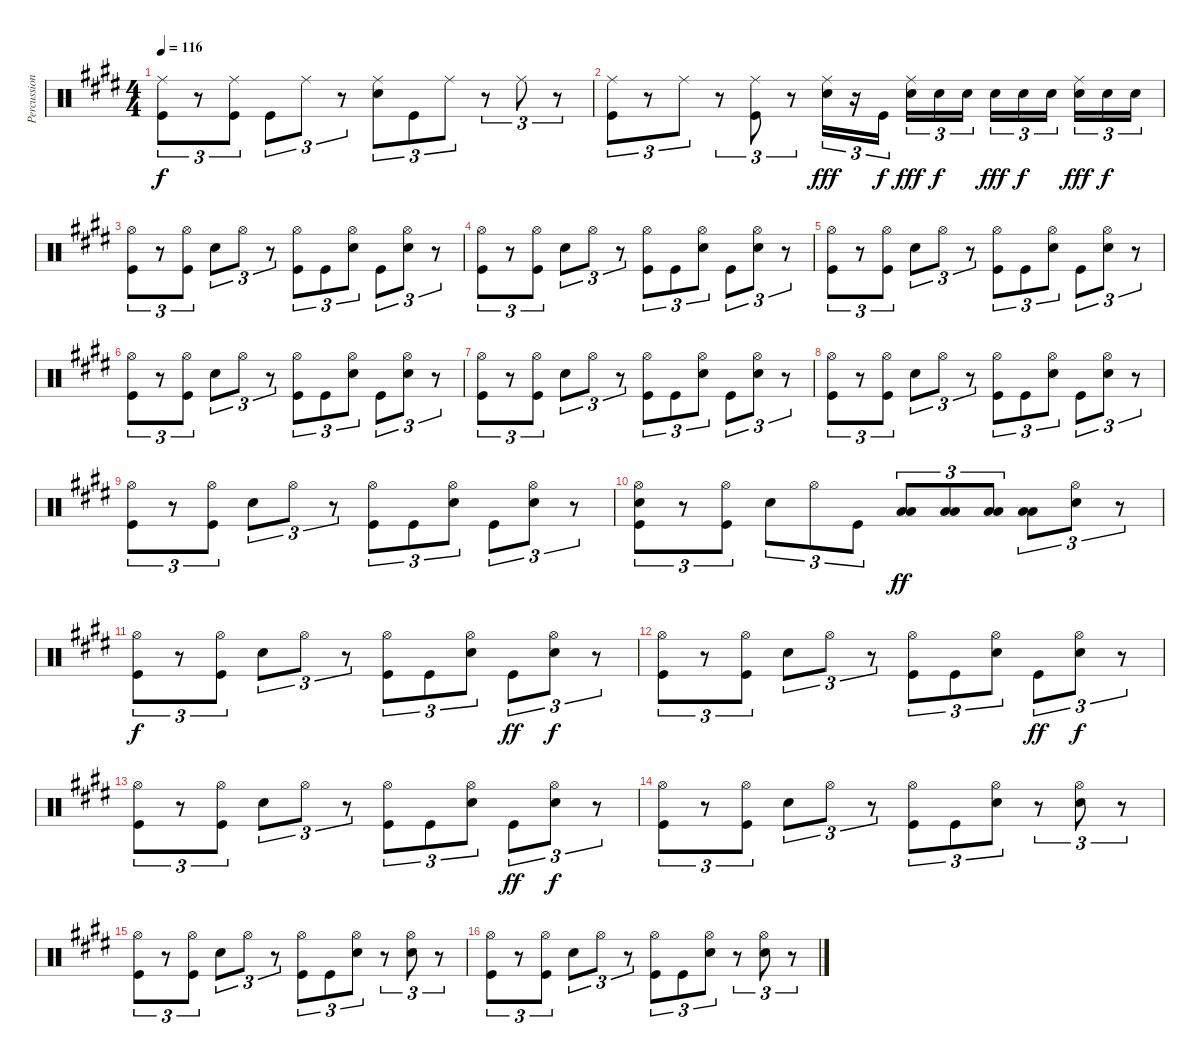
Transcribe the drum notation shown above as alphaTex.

\track ("Percussion" "Percussion") {instrument percussion}
\staff {score}
\articulation defaults
\ts (4 4)
\tempo 116
\clef neutral
\ks c#minor
("Ride (middle)" "Kick (hit)").8{tu (3 2) dy f} r.8{tu (3 2)} ("Ride (middle)" "Kick (hit)").8{tu (3 2)} "Kick (hit)".8{tu (3 2)} "Ride (middle)".8{tu (3 2)} r.8{tu (3 2)} ("Snare (hit) 2" "Ride (middle)").8{tu (3 2)} "Kick (hit)".8{tu (3 2)} "Ride (middle)".8{tu (3 2)} r.8{tu (3 2)} "Ride (middle)".8{tu (3 2)} r.8{tu (3 2)} |
("Ride (middle)" "Kick (hit)").8{tu (3 2)} r.8{tu (3 2)} "Ride (middle)".8{tu (3 2)} r.8{tu (3 2)} ("Ride (middle)" "Kick (hit)").8{tu (3 2)} r.8{tu (3 2)} ("Snare (hit) 2" "Ride (middle)").16{tu (3 2) dy fff} r.16{tu (3 2)} "Kick (hit)".16{tu (3 2) dy f beam splitsecondary} ("Snare (hit) 2" "Ride (middle)").16{tu (3 2) dy fff} "Snare (hit) 2".16{tu (3 2) dy f} "Snare (hit) 2".16{tu (3 2)} "Snare (hit) 2".16{tu (3 2) dy fff} "Snare (hit) 2".16{tu (3 2) dy f} "Snare (hit) 2".16{tu (3 2) beam splitsecondary} ("Snare (hit) 2" "Ride (middle)").16{tu (3 2) dy fff} "Snare (hit) 2".16{tu (3 2) dy f} "Snare (hit) 2".16{tu (3 2)} |
("Hi-Hat (open)" "Kick (hit)").8{tu (3 2)} r.8{tu (3 2)} ("Hi-Hat (open)" "Kick (hit)").8{tu (3 2)} "Snare (hit) 2".8{tu (3 2)} "Hi-Hat (open)".8{tu (3 2)} r.8{tu (3 2)} ("Hi-Hat (open)" "Kick (hit)").8{tu (3 2)} "Kick (hit)".8{tu (3 2)} ("Hi-Hat (open)" "Snare (hit) 2").8{tu (3 2)} "Kick (hit)".8{tu (3 2)} ("Hi-Hat (open)" "Snare (hit) 2").8{tu (3 2)} r.8{tu (3 2)} |
("Hi-Hat (open)" "Kick (hit)").8{tu (3 2)} r.8{tu (3 2)} ("Hi-Hat (open)" "Kick (hit)").8{tu (3 2)} "Snare (hit) 2".8{tu (3 2)} "Hi-Hat (open)".8{tu (3 2)} r.8{tu (3 2)} ("Hi-Hat (open)" "Kick (hit)").8{tu (3 2)} "Kick (hit)".8{tu (3 2)} ("Hi-Hat (open)" "Snare (hit) 2").8{tu (3 2)} "Kick (hit)".8{tu (3 2)} ("Hi-Hat (open)" "Snare (hit) 2").8{tu (3 2)} r.8{tu (3 2)} |
("Hi-Hat (open)" "Kick (hit)").8{tu (3 2)} r.8{tu (3 2)} ("Hi-Hat (open)" "Kick (hit)").8{tu (3 2)} "Snare (hit) 2".8{tu (3 2)} "Hi-Hat (open)".8{tu (3 2)} r.8{tu (3 2)} ("Hi-Hat (open)" "Kick (hit)").8{tu (3 2)} "Kick (hit)".8{tu (3 2)} ("Hi-Hat (open)" "Snare (hit) 2").8{tu (3 2)} "Kick (hit)".8{tu (3 2)} ("Hi-Hat (open)" "Snare (hit) 2").8{tu (3 2)} r.8{tu (3 2)} |
("Hi-Hat (open)" "Kick (hit)").8{tu (3 2)} r.8{tu (3 2)} ("Hi-Hat (open)" "Kick (hit)").8{tu (3 2)} "Snare (hit) 2".8{tu (3 2)} "Hi-Hat (open)".8{tu (3 2)} r.8{tu (3 2)} ("Hi-Hat (open)" "Kick (hit)").8{tu (3 2)} "Kick (hit)".8{tu (3 2)} ("Hi-Hat (open)" "Snare (hit) 2").8{tu (3 2)} "Kick (hit)".8{tu (3 2)} ("Hi-Hat (open)" "Snare (hit) 2").8{tu (3 2)} r.8{tu (3 2)} |
("Hi-Hat (open)" "Kick (hit)").8{tu (3 2)} r.8{tu (3 2)} ("Hi-Hat (open)" "Kick (hit)").8{tu (3 2)} "Snare (hit) 2".8{tu (3 2)} "Hi-Hat (open)".8{tu (3 2)} r.8{tu (3 2)} ("Hi-Hat (open)" "Kick (hit)").8{tu (3 2)} "Kick (hit)".8{tu (3 2)} ("Hi-Hat (open)" "Snare (hit) 2").8{tu (3 2)} "Kick (hit)".8{tu (3 2)} ("Hi-Hat (open)" "Snare (hit) 2").8{tu (3 2)} r.8{tu (3 2)} |
("Hi-Hat (open)" "Kick (hit)").8{tu (3 2)} r.8{tu (3 2)} ("Hi-Hat (open)" "Kick (hit)").8{tu (3 2)} "Snare (hit) 2".8{tu (3 2)} "Hi-Hat (open)".8{tu (3 2)} r.8{tu (3 2)} ("Hi-Hat (open)" "Kick (hit)").8{tu (3 2)} "Kick (hit)".8{tu (3 2)} ("Hi-Hat (open)" "Snare (hit) 2").8{tu (3 2)} "Kick (hit)".8{tu (3 2)} ("Hi-Hat (open)" "Snare (hit) 2").8{tu (3 2)} r.8{tu (3 2)} |
("Hi-Hat (open)" "Kick (hit)").8{tu (3 2)} r.8{tu (3 2)} ("Hi-Hat (open)" "Kick (hit)").8{tu (3 2)} "Snare (hit) 2".8{tu (3 2)} "Hi-Hat (open)".8{tu (3 2)} r.8{tu (3 2)} ("Hi-Hat (open)" "Kick (hit)").8{tu (3 2)} "Kick (hit)".8{tu (3 2)} ("Hi-Hat (open)" "Snare (hit) 2").8{tu (3 2)} "Kick (hit)".8{tu (3 2)} ("Hi-Hat (open)" "Snare (hit) 2").8{tu (3 2)} r.8{tu (3 2)} |
("Hi-Hat (open)" "Snare (hit) 2" "Kick (hit)").8{tu (3 2)} r.8{tu (3 2)} ("Hi-Hat (open)" "Kick (hit)").8{tu (3 2)} "Snare (hit) 2".8{tu (3 2)} "Hi-Hat (open)".8{tu (3 2)} "Kick (hit)".8{tu (3 2)} ("Low Tom (hit)" "Low Floor Tom (hit)").8{tu (3 2) dy ff} ("Low Tom (hit)" "Low Floor Tom (hit)").8{tu (3 2)} ("Low Tom (hit)" "Low Floor Tom (hit)").8{tu (3 2)} ("Low Tom (hit)" "Low Floor Tom (hit)").8{tu (3 2)} ("Hi-Hat (open)" "Snare (hit) 2").8{tu (3 2)} r.8{tu (3 2)} |
("Hi-Hat (open)" "Kick (hit)").8{tu (3 2) dy f} r.8{tu (3 2)} ("Hi-Hat (open)" "Kick (hit)").8{tu (3 2)} "Snare (hit) 2".8{tu (3 2)} "Hi-Hat (open)".8{tu (3 2)} r.8{tu (3 2)} ("Hi-Hat (open)" "Kick (hit)").8{tu (3 2)} "Kick (hit)".8{tu (3 2)} ("Hi-Hat (open)" "Snare (hit) 2").8{tu (3 2)} "Kick (hit)".8{tu (3 2) dy ff} ("Hi-Hat (open)" "Snare (hit) 2").8{tu (3 2) dy f} r.8{tu (3 2)} |
("Hi-Hat (open)" "Kick (hit)").8{tu (3 2)} r.8{tu (3 2)} ("Hi-Hat (open)" "Kick (hit)").8{tu (3 2)} "Snare (hit) 2".8{tu (3 2)} "Hi-Hat (open)".8{tu (3 2)} r.8{tu (3 2)} ("Hi-Hat (open)" "Kick (hit)").8{tu (3 2)} "Kick (hit)".8{tu (3 2)} ("Hi-Hat (open)" "Snare (hit) 2").8{tu (3 2)} "Kick (hit)".8{tu (3 2) dy ff} ("Hi-Hat (open)" "Snare (hit) 2").8{tu (3 2) dy f} r.8{tu (3 2)} |
("Hi-Hat (open)" "Kick (hit)").8{tu (3 2)} r.8{tu (3 2)} ("Hi-Hat (open)" "Kick (hit)").8{tu (3 2)} "Snare (hit) 2".8{tu (3 2)} "Hi-Hat (open)".8{tu (3 2)} r.8{tu (3 2)} ("Hi-Hat (open)" "Kick (hit)").8{tu (3 2)} "Kick (hit)".8{tu (3 2)} ("Hi-Hat (open)" "Snare (hit) 2").8{tu (3 2)} "Kick (hit)".8{tu (3 2) dy ff} ("Hi-Hat (open)" "Snare (hit) 2").8{tu (3 2) dy f} r.8{tu (3 2)} |
("Hi-Hat (open)" "Kick (hit)").8{tu (3 2)} r.8{tu (3 2)} ("Hi-Hat (open)" "Kick (hit)").8{tu (3 2)} "Snare (hit) 2".8{tu (3 2)} "Hi-Hat (open)".8{tu (3 2)} r.8{tu (3 2)} ("Hi-Hat (open)" "Kick (hit)").8{tu (3 2)} "Kick (hit)".8{tu (3 2)} ("Hi-Hat (open)" "Snare (hit) 2").8{tu (3 2)} r.8{tu (3 2)} ("Hi-Hat (open)" "Snare (hit) 2").8{tu (3 2)} r.8{tu (3 2)} |
("Hi-Hat (open)" "Kick (hit)").8{tu (3 2)} r.8{tu (3 2)} ("Hi-Hat (open)" "Kick (hit)").8{tu (3 2)} "Snare (hit) 2".8{tu (3 2)} "Hi-Hat (open)".8{tu (3 2)} r.8{tu (3 2)} ("Hi-Hat (open)" "Kick (hit)").8{tu (3 2)} "Kick (hit)".8{tu (3 2)} ("Hi-Hat (open)" "Snare (hit) 2").8{tu (3 2)} r.8{tu (3 2)} ("Hi-Hat (open)" "Snare (hit) 2").8{tu (3 2)} r.8{tu (3 2)} |
("Hi-Hat (open)" "Kick (hit)").8{tu (3 2)} r.8{tu (3 2)} ("Hi-Hat (open)" "Kick (hit)").8{tu (3 2)} "Snare (hit) 2".8{tu (3 2)} "Hi-Hat (open)".8{tu (3 2)} r.8{tu (3 2)} ("Hi-Hat (open)" "Kick (hit)").8{tu (3 2)} "Kick (hit)".8{tu (3 2)} ("Hi-Hat (open)" "Snare (hit) 2").8{tu (3 2)} r.8{tu (3 2)} ("Hi-Hat (open)" "Snare (hit) 2").8{tu (3 2)} r.8{tu (3 2)}
